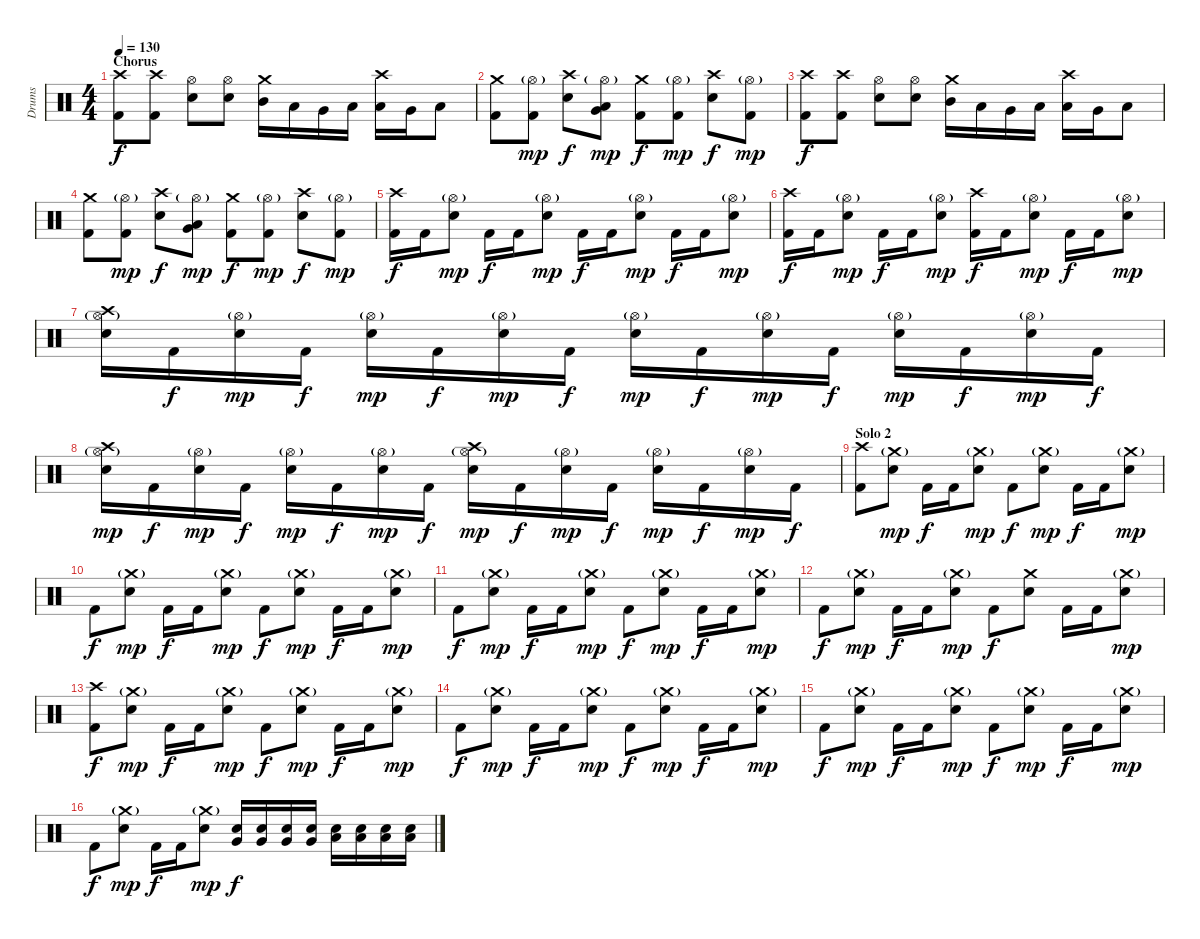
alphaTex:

\track ("Drums" "Drums") {instrument percussion}
\staff {score}
\articulation defaults
\ts (4 4)
\section ("" "Chorus")
\tempo 130
\clef neutral
\ks c
("Crash high (hit)" "Kick (hit) 2").8{dy f} ("Crash high (hit)" "Kick (hit) 2").8 ("Hi-Hat (open)" "Electric Snare (hit)").8 ("Hi-Hat (open)" "Electric Snare (hit)").8 ("Crash medium (hit)" "Mid Tom (hit)").16 "Low Tom (hit)".16 "Very Low Tom (hit)".16 "Low Floor Tom (hit)".16 ("Crash high (hit)" "Low Tom (hit)").16 "Very Low Tom (hit)".16 "Low Floor Tom (hit)".8 |
("Crash medium (hit)" "Kick (hit) 2").8 ("Hi-Hat (open)"{g} "Kick (hit) 2").8{dy mp} ("Crash high (hit)" "Electric Snare (hit)").8{dy f} ("Hi-Hat (open)"{g} "Low Tom (hit)" "Very Low Tom (hit)").8{dy mp} ("Crash medium (hit)" "Kick (hit) 2").8{dy f} ("Hi-Hat (open)"{g} "Kick (hit) 2").8{dy mp} ("Crash high (hit)" "Electric Snare (hit)").8{dy f} ("Hi-Hat (open)"{g} "Kick (hit) 2").8{dy mp} |
("Crash high (hit)" "Kick (hit) 2").8{dy f} ("Crash high (hit)" "Kick (hit) 2").8 ("Hi-Hat (open)" "Electric Snare (hit)").8 ("Hi-Hat (open)" "Electric Snare (hit)").8 ("Crash medium (hit)" "Mid Tom (hit)").16 "Low Tom (hit)".16 "Very Low Tom (hit)".16 "Low Floor Tom (hit)".16 ("Crash high (hit)" "Low Tom (hit)").16 "Very Low Tom (hit)".16 "Low Floor Tom (hit)".8 |
("Crash medium (hit)" "Kick (hit) 2").8 ("Hi-Hat (open)"{g} "Kick (hit) 2").8{dy mp} ("Crash high (hit)" "Electric Snare (hit)").8{dy f} ("Hi-Hat (open)"{g} "Low Tom (hit)" "Very Low Tom (hit)").8{dy mp} ("Crash medium (hit)" "Kick (hit) 2").8{dy f} ("Hi-Hat (open)"{g} "Kick (hit) 2").8{dy mp} ("Crash high (hit)" "Electric Snare (hit)").8{dy f} ("Hi-Hat (open)"{g} "Kick (hit) 2").8{dy mp} |
("Crash high (hit)" "Kick (hit) 2").16{dy f} "Kick (hit) 2".16 ("Hi-Hat (open)"{g} "Electric Snare (hit)").8{dy mp} "Kick (hit) 2".16{dy f} "Kick (hit) 2".16 ("Hi-Hat (open)"{g} "Electric Snare (hit)").8{dy mp} "Kick (hit) 2".16{dy f} "Kick (hit) 2".16 ("Hi-Hat (open)"{g} "Electric Snare (hit)").8{dy mp} "Kick (hit) 2".16{dy f} "Kick (hit) 2".16 ("Hi-Hat (open)"{g} "Electric Snare (hit)").8{dy mp} |
("Crash high (hit)" "Kick (hit) 2").16{dy f} "Kick (hit) 2".16 ("Hi-Hat (open)"{g} "Electric Snare (hit)").8{dy mp} "Kick (hit) 2".16{dy f} "Kick (hit) 2".16 ("Hi-Hat (open)"{g} "Electric Snare (hit)").8{dy mp} ("Crash high (hit)" "Kick (hit) 2").16{dy f} "Kick (hit) 2".16 ("Hi-Hat (open)"{g} "Electric Snare (hit)").8{dy mp} "Kick (hit) 2".16{dy f} "Kick (hit) 2".16 ("Hi-Hat (open)"{g} "Electric Snare (hit)").8{dy mp} |
("Hi-Hat (open)"{g} "Crash high (hit)" "Electric Snare (hit)").16 "Kick (hit) 2".16{dy f} ("Hi-Hat (open)"{g} "Electric Snare (hit)").16{dy mp} "Kick (hit) 2".16{dy f} ("Hi-Hat (open)"{g} "Electric Snare (hit)").16{dy mp} "Kick (hit) 2".16{dy f} ("Hi-Hat (open)"{g} "Electric Snare (hit)").16{dy mp} "Kick (hit) 2".16{dy f} ("Hi-Hat (open)"{g} "Electric Snare (hit)").16{dy mp} "Kick (hit) 2".16{dy f} ("Hi-Hat (open)"{g} "Electric Snare (hit)").16{dy mp} "Kick (hit) 2".16{dy f} ("Hi-Hat (open)"{g} "Electric Snare (hit)").16{dy mp} "Kick (hit) 2".16{dy f} ("Hi-Hat (open)"{g} "Electric Snare (hit)").16{dy mp} "Kick (hit) 2".16{dy f} |
("Hi-Hat (open)"{g} "Crash high (hit)" "Electric Snare (hit)").16{dy mp} "Kick (hit) 2".16{dy f} ("Hi-Hat (open)"{g} "Electric Snare (hit)").16{dy mp} "Kick (hit) 2".16{dy f} ("Hi-Hat (open)"{g} "Electric Snare (hit)").16{dy mp} "Kick (hit) 2".16{dy f} ("Hi-Hat (open)"{g} "Electric Snare (hit)").16{dy mp} "Kick (hit) 2".16{dy f} ("Hi-Hat (open)"{g} "Crash high (hit)" "Electric Snare (hit)").16{dy mp} "Kick (hit) 2".16{dy f} ("Hi-Hat (open)"{g} "Electric Snare (hit)").16{dy mp} "Kick (hit) 2".16{dy f} ("Hi-Hat (open)"{g} "Electric Snare (hit)").16{dy mp} "Kick (hit) 2".16{dy f} ("Hi-Hat (open)"{g} "Electric Snare (hit)").16{dy mp} "Kick (hit) 2".16{dy f} |
\section ("" "Solo 2")
("Crash high (hit)" "Kick (hit) 2").8 ("Crash medium (hit)"{g} "Electric Snare (hit)").8{dy mp} "Kick (hit) 2".16{dy f} "Kick (hit) 2".16 ("Crash medium (hit)"{g} "Electric Snare (hit)").8{dy mp} "Kick (hit) 2".8{dy f} ("Crash medium (hit)"{g} "Electric Snare (hit)").8{dy mp} "Kick (hit) 2".16{dy f} "Kick (hit) 2".16 ("Crash medium (hit)"{g} "Electric Snare (hit)").8{dy mp} |
"Kick (hit) 2".8{dy f} ("Crash medium (hit)"{g} "Electric Snare (hit)").8{dy mp} "Kick (hit) 2".16{dy f} "Kick (hit) 2".16 ("Crash medium (hit)"{g} "Electric Snare (hit)").8{dy mp} "Kick (hit) 2".8{dy f} ("Crash medium (hit)"{g} "Electric Snare (hit)").8{dy mp} "Kick (hit) 2".16{dy f} "Kick (hit) 2".16 ("Crash medium (hit)"{g} "Electric Snare (hit)").8{dy mp} |
"Kick (hit) 2".8{dy f} ("Crash medium (hit)"{g} "Electric Snare (hit)").8{dy mp} "Kick (hit) 2".16{dy f} "Kick (hit) 2".16 ("Crash medium (hit)"{g} "Electric Snare (hit)").8{dy mp} "Kick (hit) 2".8{dy f} ("Crash medium (hit)"{g} "Electric Snare (hit)").8{dy mp} "Kick (hit) 2".16{dy f} "Kick (hit) 2".16 ("Crash medium (hit)"{g} "Electric Snare (hit)").8{dy mp} |
"Kick (hit) 2".8{dy f} ("Crash medium (hit)"{g} "Electric Snare (hit)").8{dy mp} "Kick (hit) 2".16{dy f} "Kick (hit) 2".16 ("Crash medium (hit)"{g} "Electric Snare (hit)").8{dy mp} "Kick (hit) 2".8{dy f} ("Crash medium (hit)" "Electric Snare (hit)").8 "Kick (hit) 2".16 "Kick (hit) 2".16 ("Crash medium (hit)"{g} "Electric Snare (hit)").8{dy mp} |
("Crash high (hit)" "Kick (hit) 2").8{dy f} ("Crash medium (hit)"{g} "Electric Snare (hit)").8{dy mp} "Kick (hit) 2".16{dy f} "Kick (hit) 2".16 ("Crash medium (hit)"{g} "Electric Snare (hit)").8{dy mp} "Kick (hit) 2".8{dy f} ("Crash medium (hit)"{g} "Electric Snare (hit)").8{dy mp} "Kick (hit) 2".16{dy f} "Kick (hit) 2".16 ("Crash medium (hit)"{g} "Electric Snare (hit)").8{dy mp} |
"Kick (hit) 2".8{dy f} ("Crash medium (hit)"{g} "Electric Snare (hit)").8{dy mp} "Kick (hit) 2".16{dy f} "Kick (hit) 2".16 ("Crash medium (hit)"{g} "Electric Snare (hit)").8{dy mp} "Kick (hit) 2".8{dy f} ("Crash medium (hit)"{g} "Electric Snare (hit)").8{dy mp} "Kick (hit) 2".16{dy f} "Kick (hit) 2".16 ("Crash medium (hit)"{g} "Electric Snare (hit)").8{dy mp} |
"Kick (hit) 2".8{dy f} ("Crash medium (hit)"{g} "Electric Snare (hit)").8{dy mp} "Kick (hit) 2".16{dy f} "Kick (hit) 2".16 ("Crash medium (hit)"{g} "Electric Snare (hit)").8{dy mp} "Kick (hit) 2".8{dy f} ("Crash medium (hit)"{g} "Electric Snare (hit)").8{dy mp} "Kick (hit) 2".16{dy f} "Kick (hit) 2".16 ("Crash medium (hit)"{g} "Electric Snare (hit)").8{dy mp} |
"Kick (hit) 2".8{dy f} ("Crash medium (hit)"{g} "Electric Snare (hit)").8{dy mp} "Kick (hit) 2".16{dy f} "Kick (hit) 2".16 ("Crash medium (hit)"{g} "Electric Snare (hit)").8{dy mp} ("Very Low Tom (hit)" "Electric Snare (hit)").16{dy f} ("Very Low Tom (hit)" "Electric Snare (hit)").16 ("Very Low Tom (hit)" "Electric Snare (hit)").16 ("Very Low Tom (hit)" "Electric Snare (hit)").16 ("Low Tom (hit)" "Electric Snare (hit)").16 ("Low Tom (hit)" "Electric Snare (hit)").16 ("Low Tom (hit)" "Electric Snare (hit)").16 ("Low Tom (hit)" "Electric Snare (hit)").16
